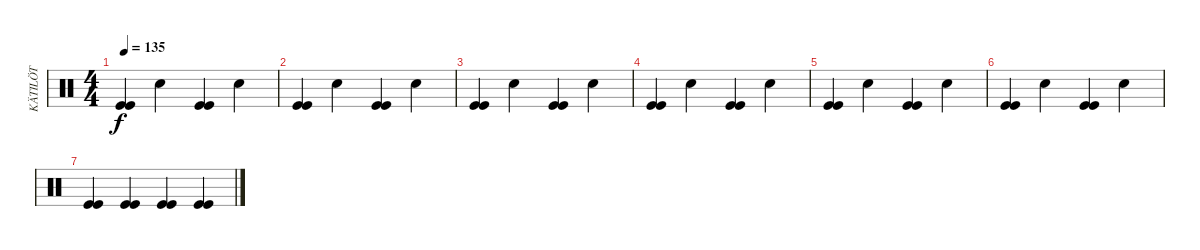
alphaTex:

\track ("KÄTILÖT" "KÄTILÖT") {instrument percussion}
\staff {score}
\articulation defaults
\ts (4 4)
\tempo 135
\clef neutral
\ks c
("Kick (hit)" "Kick (hit)").4{dy f} "Electric Snare (hit)".4 ("Kick (hit)" "Kick (hit)").4 "Electric Snare (hit)".4 |
("Kick (hit)" "Kick (hit)").4 "Electric Snare (hit)".4 ("Kick (hit)" "Kick (hit)").4 "Electric Snare (hit)".4 |
("Kick (hit)" "Kick (hit)").4 "Electric Snare (hit)".4 ("Kick (hit)" "Kick (hit)").4 "Electric Snare (hit)".4 |
("Kick (hit)" "Kick (hit)").4 "Electric Snare (hit)".4 ("Kick (hit)" "Kick (hit)").4 "Electric Snare (hit)".4 |
("Kick (hit)" "Kick (hit)").4 "Electric Snare (hit)".4 ("Kick (hit)" "Kick (hit)").4 "Electric Snare (hit)".4 |
("Kick (hit)" "Kick (hit)").4 "Electric Snare (hit)".4 ("Kick (hit)" "Kick (hit)").4 "Electric Snare (hit)".4 |
("Kick (hit)" "Kick (hit)").4 ("Kick (hit)" "Kick (hit)").4 ("Kick (hit)" "Kick (hit)").4 ("Kick (hit)" "Kick (hit)").4
